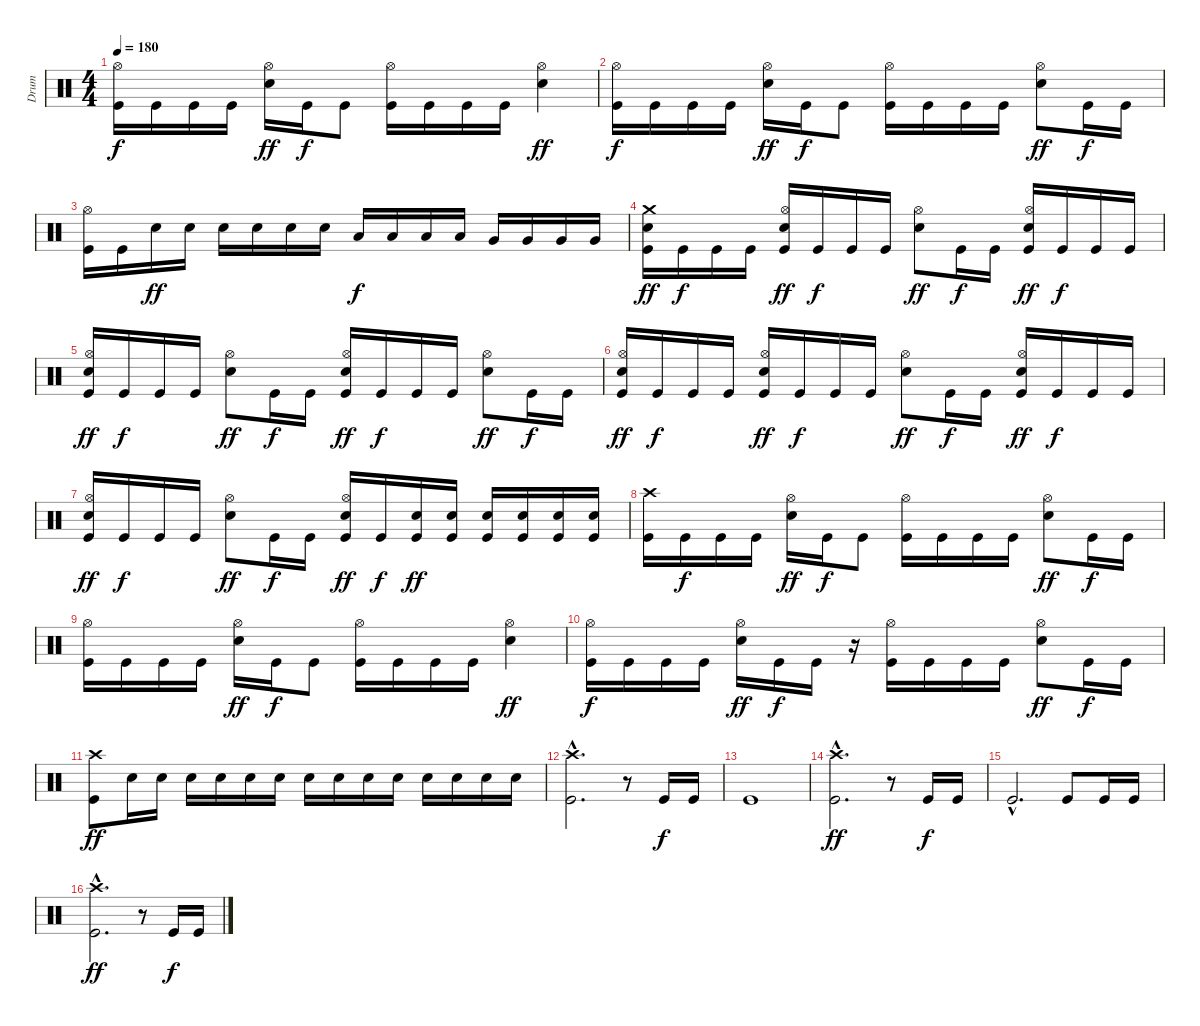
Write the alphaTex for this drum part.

\track ("Drum" "Drum") {instrument percussion}
\staff {score}
\articulation defaults
\ts (4 4)
\tempo 180
\clef neutral
\ks c
("Kick (hit)" "Hi-Hat (open)").16{dy f} "Kick (hit)".16 "Kick (hit)".16 "Kick (hit)".16 ("Electric Snare (hit)" "Hi-Hat (open)").16{dy ff} "Kick (hit)".16{dy f} "Kick (hit)".8 ("Kick (hit)" "Hi-Hat (open)").16 "Kick (hit)".16 "Kick (hit)".16 "Kick (hit)".16 ("Electric Snare (hit)" "Hi-Hat (open)").4{dy ff} |
("Kick (hit)" "Hi-Hat (open)").16{dy f} "Kick (hit)".16 "Kick (hit)".16 "Kick (hit)".16 ("Electric Snare (hit)" "Hi-Hat (open)").16{dy ff} "Kick (hit)".16{dy f} "Kick (hit)".8 ("Kick (hit)" "Hi-Hat (open)").16 "Kick (hit)".16 "Kick (hit)".16 "Kick (hit)".16 ("Electric Snare (hit)" "Hi-Hat (open)").8{dy ff} "Kick (hit)".16{dy f} "Kick (hit)".16 |
("Kick (hit)" "Hi-Hat (open)").16 "Kick (hit)".16 "Electric Snare (hit)".16{dy ff} "Electric Snare (hit)".16 "Electric Snare (hit)".16 "Electric Snare (hit)".16 "Electric Snare (hit)".16 "Electric Snare (hit)".16 "Low Tom (hit)".16{dy f} "Low Tom (hit)".16 "Low Tom (hit)".16 "Low Tom (hit)".16 "Very Low Tom (hit)".16 "Very Low Tom (hit)".16 "Very Low Tom (hit)".16 "Very Low Tom (hit)".16 |
("Kick (hit)" "Electric Snare (hit)" "Crash medium (hit)").16{dy ff} "Kick (hit)".16{dy f} "Kick (hit)".16 "Kick (hit)".16 ("Kick (hit)" "Electric Snare (hit)" "Hi-Hat (open)").16{dy ff} "Kick (hit)".16{dy f} "Kick (hit)".16 "Kick (hit)".16 ("Electric Snare (hit)" "Hi-Hat (open)").8{dy ff} "Kick (hit)".16{dy f} "Kick (hit)".16 ("Kick (hit)" "Electric Snare (hit)" "Hi-Hat (open)").16{dy ff} "Kick (hit)".16{dy f} "Kick (hit)".16 "Kick (hit)".16 |
("Kick (hit)" "Electric Snare (hit)" "Hi-Hat (open)").16{dy ff} "Kick (hit)".16{dy f} "Kick (hit)".16 "Kick (hit)".16 ("Electric Snare (hit)" "Hi-Hat (open)").8{dy ff} "Kick (hit)".16{dy f} "Kick (hit)".16 ("Kick (hit)" "Electric Snare (hit)" "Hi-Hat (open)").16{dy ff} "Kick (hit)".16{dy f} "Kick (hit)".16 "Kick (hit)".16 ("Electric Snare (hit)" "Hi-Hat (open)").8{dy ff} "Kick (hit)".16{dy f} "Kick (hit)".16 |
("Kick (hit)" "Electric Snare (hit)" "Hi-Hat (open)").16{dy ff} "Kick (hit)".16{dy f} "Kick (hit)".16 "Kick (hit)".16 ("Kick (hit)" "Electric Snare (hit)" "Hi-Hat (open)").16{dy ff} "Kick (hit)".16{dy f} "Kick (hit)".16 "Kick (hit)".16 ("Electric Snare (hit)" "Hi-Hat (open)").8{dy ff} "Kick (hit)".16{dy f} "Kick (hit)".16 ("Kick (hit)" "Electric Snare (hit)" "Hi-Hat (open)").16{dy ff} "Kick (hit)".16{dy f} "Kick (hit)".16 "Kick (hit)".16 |
("Kick (hit)" "Electric Snare (hit)" "Hi-Hat (open)").16{dy ff} "Kick (hit)".16{dy f} "Kick (hit)".16 "Kick (hit)".16 ("Electric Snare (hit)" "Hi-Hat (open)").8{dy ff} "Kick (hit)".16{dy f} "Kick (hit)".16 ("Kick (hit)" "Electric Snare (hit)" "Hi-Hat (open)").16{dy ff} "Kick (hit)".16{dy f} ("Kick (hit)" "Electric Snare (hit)").16{dy ff} ("Kick (hit)" "Electric Snare (hit)").16 ("Kick (hit)" "Electric Snare (hit)").16 ("Kick (hit)" "Electric Snare (hit)").16 ("Kick (hit)" "Electric Snare (hit)").16 ("Kick (hit)" "Electric Snare (hit)").16 |
("Kick (hit)" "Crash high (hit)").16 "Kick (hit)".16{dy f} "Kick (hit)".16 "Kick (hit)".16 ("Electric Snare (hit)" "Hi-Hat (open)").16{dy ff} "Kick (hit)".16{dy f} "Kick (hit)".8 ("Kick (hit)" "Hi-Hat (open)").16 "Kick (hit)".16 "Kick (hit)".16 "Kick (hit)".16 ("Electric Snare (hit)" "Hi-Hat (open)").8{dy ff} "Kick (hit)".16{dy f} "Kick (hit)".16 |
("Kick (hit)" "Hi-Hat (open)").16 "Kick (hit)".16 "Kick (hit)".16 "Kick (hit)".16 ("Electric Snare (hit)" "Hi-Hat (open)").16{dy ff} "Kick (hit)".16{dy f} "Kick (hit)".8 ("Kick (hit)" "Hi-Hat (open)").16 "Kick (hit)".16 "Kick (hit)".16 "Kick (hit)".16 ("Electric Snare (hit)" "Hi-Hat (open)").4{dy ff} |
("Kick (hit)" "Hi-Hat (open)").16{dy f} "Kick (hit)".16 "Kick (hit)".16 "Kick (hit)".16 ("Electric Snare (hit)" "Hi-Hat (open)").16{dy ff} "Kick (hit)".16{dy f} "Kick (hit)".16 r.16 ("Kick (hit)" "Hi-Hat (open)").16 "Kick (hit)".16 "Kick (hit)".16 "Kick (hit)".16 ("Electric Snare (hit)" "Hi-Hat (open)").8{dy ff} "Kick (hit)".16{dy f} "Kick (hit)".16 |
("Kick (hit)" "Crash high (hit)").8{dy ff} "Electric Snare (hit)".16 "Electric Snare (hit)".16 "Electric Snare (hit)".16 "Electric Snare (hit)".16 "Electric Snare (hit)".16 "Electric Snare (hit)".16 "Electric Snare (hit)".16 "Electric Snare (hit)".16 "Electric Snare (hit)".16 "Electric Snare (hit)".16 "Electric Snare (hit)".16 "Electric Snare (hit)".16 "Electric Snare (hit)".16 "Electric Snare (hit)".16 |
("Kick (hit)"{hac} "Crash high (hit)"{hac}).2{d} r.8 "Kick (hit)".16{dy f} "Kick (hit)".16 |
"Kick (hit)".1 |
("Kick (hit)"{hac} "Crash high (hit)"{hac}).2{d dy ff} r.8 "Kick (hit)".16{dy f} "Kick (hit)".16 |
"Kick (hit)"{hac}.2{d} "Kick (hit)".8 "Kick (hit)".16 "Kick (hit)".16 |
("Kick (hit)"{hac} "Crash high (hit)"{hac}).2{d dy ff} r.8 "Kick (hit)".16{dy f} "Kick (hit)".16
